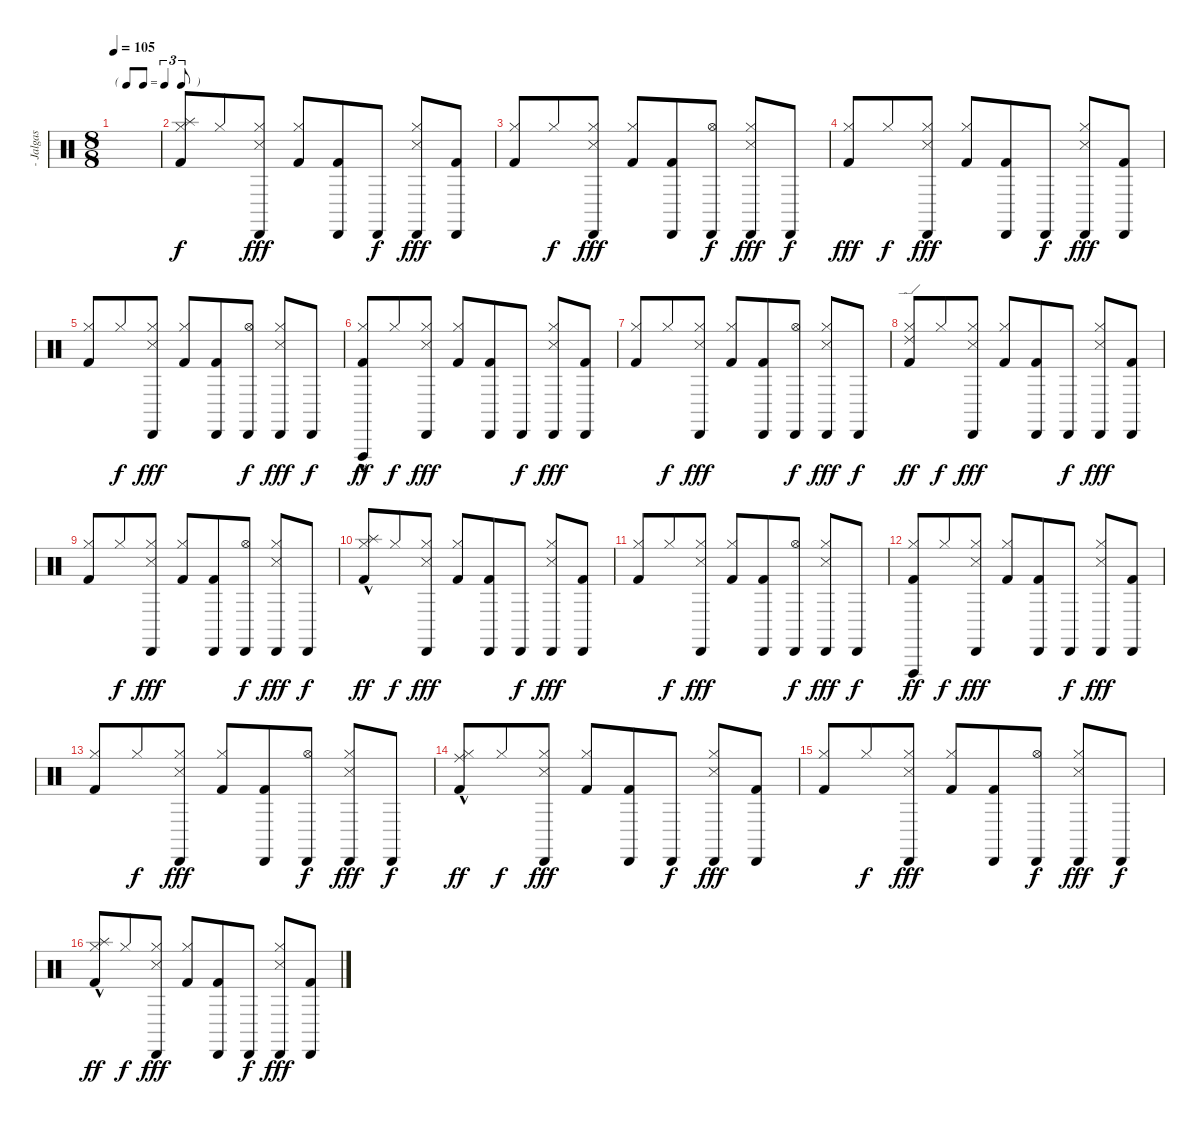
\track (" - Jalgas -" " - Jalgas ") {instrument percussion}
\staff {score}
\articulation defaults
\ts (8 8)
\tf triplet8th
\tempo 105
\clef neutral
\ks c
|
("Kick (hit) 2" "Hi-Hat (closed)" "Splash (hit)").8 "Hi-Hat (closed)".8{dy f} ("Snare (side stick) 3" "Hi-Hat (closed)" "Cabasa (hit)").8{dy fff} ("Kick (hit) 2" "Hi-Hat (closed)").8 ("Kick (hit) 2" "Cabasa (hit)").8 "Cabasa (hit)".8{dy f} ("Snare (side stick) 3" "Hi-Hat (closed)" "Cabasa (hit)").8{dy fff} ("Kick (hit) 2" "Cabasa (hit)").8 |
("Kick (hit) 2" "Hi-Hat (closed)").8 "Hi-Hat (closed)".8{dy f} ("Snare (side stick) 3" "Hi-Hat (closed)" "Cabasa (hit)").8{dy fff} ("Kick (hit) 2" "Hi-Hat (closed)").8 ("Kick (hit) 2" "Cabasa (hit)").8 ("Hi-Hat (open)" "Cabasa (hit)").8{dy f} ("Snare (side stick) 3" "Hi-Hat (closed)" "Cabasa (hit)").8{dy fff} "Cabasa (hit)".8{dy f} |
("Kick (hit) 2" "Hi-Hat (closed)").8{dy fff} "Hi-Hat (closed)".8{dy f} ("Snare (side stick) 3" "Hi-Hat (closed)" "Cabasa (hit)").8{dy fff} ("Kick (hit) 2" "Hi-Hat (closed)").8 ("Kick (hit) 2" "Cabasa (hit)").8 "Cabasa (hit)".8{dy f} ("Snare (side stick) 3" "Hi-Hat (closed)" "Cabasa (hit)").8{dy fff} ("Kick (hit) 2" "Cabasa (hit)").8 |
("Kick (hit) 2" "Hi-Hat (closed)").8 "Hi-Hat (closed)".8{dy f} ("Snare (side stick) 3" "Hi-Hat (closed)" "Cabasa (hit)").8{dy fff} ("Kick (hit) 2" "Hi-Hat (closed)").8 ("Kick (hit) 2" "Cabasa (hit)").8 ("Hi-Hat (open)" "Cabasa (hit)").8{dy f} ("Snare (side stick) 3" "Hi-Hat (closed)" "Cabasa (hit)").8{dy fff} "Cabasa (hit)".8{dy f} |
("Kick (hit) 2" "Hi-Hat (closed)" "Vibraslap (hit)"{hac}).8{dy ff} "Hi-Hat (closed)".8{dy f} ("Snare (side stick) 3" "Hi-Hat (closed)" "Cabasa (hit)").8{dy fff} ("Kick (hit) 2" "Hi-Hat (closed)").8 ("Kick (hit) 2" "Cabasa (hit)").8 "Cabasa (hit)".8{dy f} ("Snare (side stick) 3" "Hi-Hat (closed)" "Cabasa (hit)").8{dy fff} ("Kick (hit) 2" "Cabasa (hit)").8 |
("Kick (hit) 2" "Hi-Hat (closed)").8 "Hi-Hat (closed)".8{dy f} ("Snare (side stick) 3" "Hi-Hat (closed)" "Cabasa (hit)").8{dy fff} ("Kick (hit) 2" "Hi-Hat (closed)").8 ("Kick (hit) 2" "Cabasa (hit)").8 ("Hi-Hat (open)" "Cabasa (hit)").8{dy f} ("Snare (side stick) 3" "Hi-Hat (closed)" "Cabasa (hit)").8{dy fff} "Cabasa (hit)".8{dy f} |
("Kick (hit) 2" "Hi-Hat (closed)" "Ride (edge) 2").8{dy ff} "Hi-Hat (closed)".8{dy f} ("Snare (side stick) 3" "Hi-Hat (closed)" "Cabasa (hit)").8{dy fff} ("Kick (hit) 2" "Hi-Hat (closed)").8 ("Kick (hit) 2" "Cabasa (hit)").8 "Cabasa (hit)".8{dy f} ("Snare (side stick) 3" "Hi-Hat (closed)" "Cabasa (hit)").8{dy fff} ("Kick (hit) 2" "Cabasa (hit)").8 |
("Kick (hit) 2" "Hi-Hat (closed)").8 "Hi-Hat (closed)".8{dy f} ("Snare (side stick) 3" "Hi-Hat (closed)" "Cabasa (hit)").8{dy fff} ("Kick (hit) 2" "Hi-Hat (closed)").8 ("Kick (hit) 2" "Cabasa (hit)").8 ("Hi-Hat (open)" "Cabasa (hit)").8{dy f} ("Snare (side stick) 3" "Hi-Hat (closed)" "Cabasa (hit)").8{dy fff} "Cabasa (hit)".8{dy f} |
("Kick (hit) 2" "Hi-Hat (closed)" "Splash (hit)"{hac}).8{dy ff} "Hi-Hat (closed)".8{dy f} ("Snare (side stick) 3" "Hi-Hat (closed)" "Cabasa (hit)").8{dy fff} ("Kick (hit) 2" "Hi-Hat (closed)").8 ("Kick (hit) 2" "Cabasa (hit)").8 "Cabasa (hit)".8{dy f} ("Snare (side stick) 3" "Hi-Hat (closed)" "Cabasa (hit)").8{dy fff} ("Kick (hit) 2" "Cabasa (hit)").8 |
("Kick (hit) 2" "Hi-Hat (closed)").8 "Hi-Hat (closed)".8{dy f} ("Snare (side stick) 3" "Hi-Hat (closed)" "Cabasa (hit)").8{dy fff} ("Kick (hit) 2" "Hi-Hat (closed)").8 ("Kick (hit) 2" "Cabasa (hit)").8 ("Hi-Hat (open)" "Cabasa (hit)").8{dy f} ("Snare (side stick) 3" "Hi-Hat (closed)" "Cabasa (hit)").8{dy fff} "Cabasa (hit)".8{dy f} |
("Kick (hit) 2" "Hi-Hat (closed)" "Vibraslap (hit)").8{dy ff} "Hi-Hat (closed)".8{dy f} ("Snare (side stick) 3" "Hi-Hat (closed)" "Cabasa (hit)").8{dy fff} ("Kick (hit) 2" "Hi-Hat (closed)").8 ("Kick (hit) 2" "Cabasa (hit)").8 "Cabasa (hit)".8{dy f} ("Snare (side stick) 3" "Hi-Hat (closed)" "Cabasa (hit)").8{dy fff} ("Kick (hit) 2" "Cabasa (hit)").8 |
("Kick (hit) 2" "Hi-Hat (closed)").8 "Hi-Hat (closed)".8{dy f} ("Snare (side stick) 3" "Hi-Hat (closed)" "Cabasa (hit)").8{dy fff} ("Kick (hit) 2" "Hi-Hat (closed)").8 ("Kick (hit) 2" "Cabasa (hit)").8 ("Hi-Hat (open)" "Cabasa (hit)").8{dy f} ("Snare (side stick) 3" "Hi-Hat (closed)" "Cabasa (hit)").8{dy fff} "Cabasa (hit)".8{dy f} |
("Kick (hit) 2" "Hi-Hat (closed)" "Ride (middle)"{hac}).8{dy ff} "Hi-Hat (closed)".8{dy f} ("Snare (side stick) 3" "Hi-Hat (closed)" "Cabasa (hit)").8{dy fff} ("Kick (hit) 2" "Hi-Hat (closed)").8 ("Kick (hit) 2" "Cabasa (hit)").8 "Cabasa (hit)".8{dy f} ("Snare (side stick) 3" "Hi-Hat (closed)" "Cabasa (hit)").8{dy fff} ("Kick (hit) 2" "Cabasa (hit)").8 |
("Kick (hit) 2" "Hi-Hat (closed)").8 "Hi-Hat (closed)".8{dy f} ("Snare (side stick) 3" "Hi-Hat (closed)" "Cabasa (hit)").8{dy fff} ("Kick (hit) 2" "Hi-Hat (closed)").8 ("Kick (hit) 2" "Cabasa (hit)").8 ("Hi-Hat (open)" "Cabasa (hit)").8{dy f} ("Snare (side stick) 3" "Hi-Hat (closed)" "Cabasa (hit)").8{dy fff} "Cabasa (hit)".8{dy f} |
("Kick (hit) 2" "Hi-Hat (closed)" "Splash (hit)"{hac}).8{dy ff} "Hi-Hat (closed)".8{dy f} ("Snare (side stick) 3" "Hi-Hat (closed)" "Cabasa (hit)").8{dy fff} ("Kick (hit) 2" "Hi-Hat (closed)").8 ("Kick (hit) 2" "Cabasa (hit)").8 "Cabasa (hit)".8{dy f} ("Snare (side stick) 3" "Hi-Hat (closed)" "Cabasa (hit)").8{dy fff} ("Kick (hit) 2" "Cabasa (hit)").8
